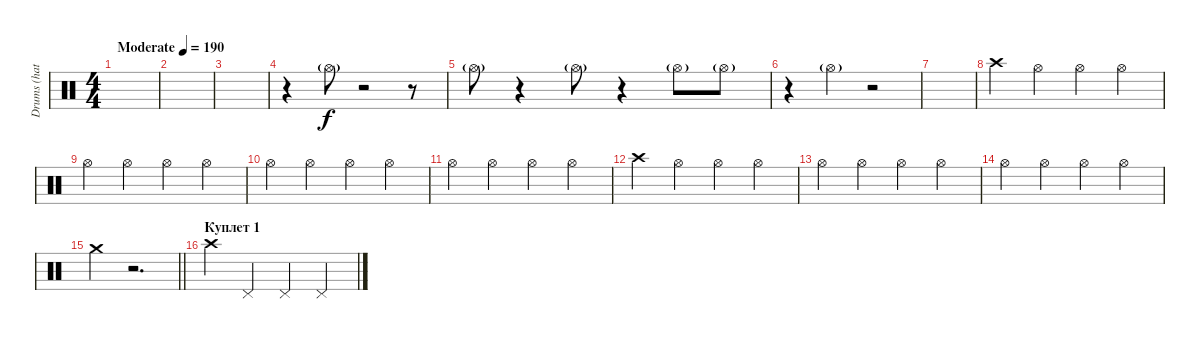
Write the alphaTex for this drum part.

\track ("Drums (hats)" "Drums (hat") {instrument percussion}
\staff {score}
\articulation defaults
\ts (4 4)
\tempo (190 "Moderate")
\clef neutral
\ks c
|
|
|
r.4 "Hi-Hat (open)"{g}.8 r.2 r.8 |
"Hi-Hat (open)"{g}.8 r.4 "Hi-Hat (open)"{g}.8 r.4 "Hi-Hat (open)"{g}.8 "Hi-Hat (open)"{g}.8 |
r.4 "Hi-Hat (open)"{g}.4 r.2 |
|
"Crash high (hit)".4{dy f} "Hi-Hat (open)".4 "Hi-Hat (open)".4 "Hi-Hat (open)".4 |
"Hi-Hat (open)".4 "Hi-Hat (open)".4 "Hi-Hat (open)".4 "Hi-Hat (open)".4 |
"Hi-Hat (open)".4 "Hi-Hat (open)".4 "Hi-Hat (open)".4 "Hi-Hat (open)".4 |
"Hi-Hat (open)".4 "Hi-Hat (open)".4 "Hi-Hat (open)".4 "Hi-Hat (open)".4 |
"Crash high (hit)".4 "Hi-Hat (open)".4 "Hi-Hat (open)".4 "Hi-Hat (open)".4 |
"Hi-Hat (open)".4 "Hi-Hat (open)".4 "Hi-Hat (open)".4 "Hi-Hat (open)".4 |
"Hi-Hat (open)".4 "Hi-Hat (open)".4 "Hi-Hat (open)".4 "Hi-Hat (open)".4 |
\barLineRight lightlight "Crash medium (hit)".4
r.2{d} |
\section ("" "Куплет 1")
"Crash high (hit)".4 "Pedal Hi-Hat (hit)".4 "Pedal Hi-Hat (hit)".4 "Pedal Hi-Hat (hit)".4
